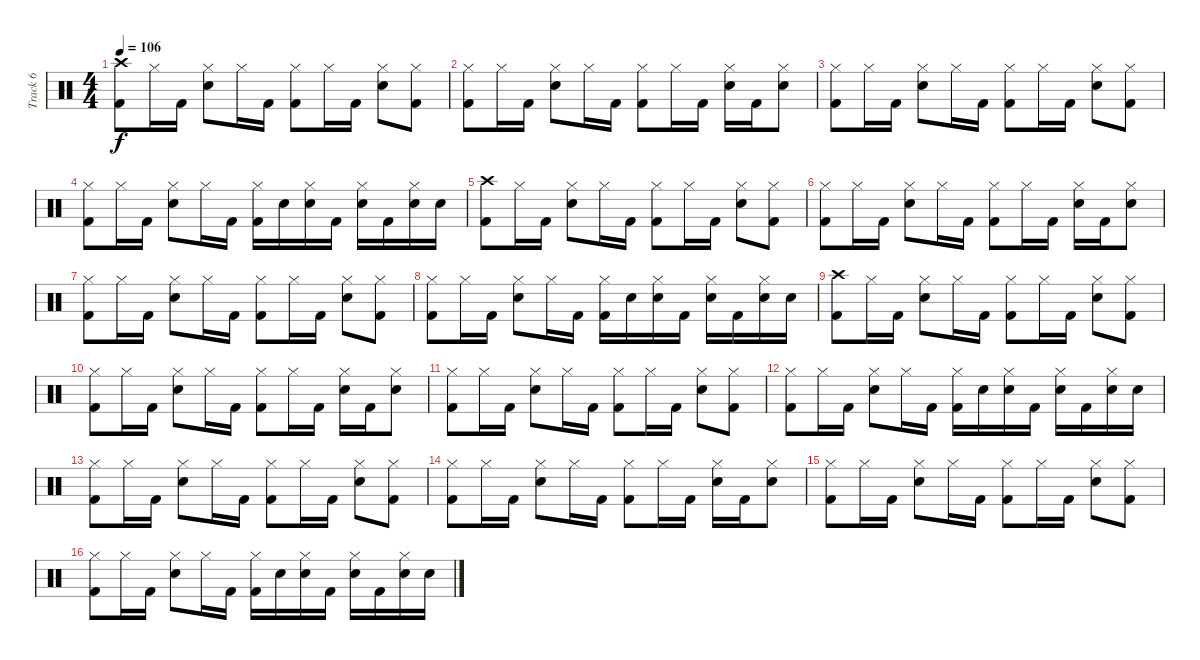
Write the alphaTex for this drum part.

\track ("Track 6" "Track 6") {instrument percussion}
\staff {score}
\articulation defaults
\ts (4 4)
\tempo 106
\clef neutral
\ks c
("Crash high (hit)" "Kick (hit) 2").8{dy f} "Hi-Hat (closed)".16 "Kick (hit) 2".16 ("Hi-Hat (closed)" "Snare (hit) 2").8 "Hi-Hat (closed)".16 "Kick (hit) 2".16 ("Hi-Hat (closed)" "Kick (hit) 2").8 "Hi-Hat (closed)".16 "Kick (hit) 2".16 ("Hi-Hat (closed)" "Snare (hit) 2").8 ("Hi-Hat (closed)" "Kick (hit) 2").8 |
("Hi-Hat (closed)" "Kick (hit) 2").8 "Hi-Hat (closed)".16 "Kick (hit) 2".16 ("Hi-Hat (closed)" "Snare (hit) 2").8 "Hi-Hat (closed)".16 "Kick (hit) 2".16 ("Hi-Hat (closed)" "Kick (hit) 2").8 "Hi-Hat (closed)".16 "Kick (hit) 2".16 ("Hi-Hat (closed)" "Snare (hit) 2").16 "Kick (hit) 2".16 ("Hi-Hat (closed)" "Snare (hit) 2").8 |
("Hi-Hat (closed)" "Kick (hit) 2").8 "Hi-Hat (closed)".16 "Kick (hit) 2".16 ("Hi-Hat (closed)" "Snare (hit) 2").8 "Hi-Hat (closed)".16 "Kick (hit) 2".16 ("Hi-Hat (closed)" "Kick (hit) 2").8 "Hi-Hat (closed)".16 "Kick (hit) 2".16 ("Hi-Hat (closed)" "Snare (hit) 2").8 ("Hi-Hat (closed)" "Kick (hit) 2").8 |
("Hi-Hat (closed)" "Kick (hit) 2").8 "Hi-Hat (closed)".16 "Kick (hit) 2".16 ("Hi-Hat (closed)" "Snare (hit) 2").8 "Hi-Hat (closed)".16 "Kick (hit) 2".16 ("Hi-Hat (closed)" "Kick (hit) 2").16 "Snare (hit) 2".16 ("Hi-Hat (closed)" "Snare (hit) 2").16 "Kick (hit) 2".16 ("Hi-Hat (closed)" "Snare (hit) 2").16 "Kick (hit) 2".16 ("Hi-Hat (closed)" "Snare (hit) 2").16 "Snare (hit) 2".16 |
("Crash high (hit)" "Kick (hit) 2").8 "Hi-Hat (closed)".16 "Kick (hit) 2".16 ("Hi-Hat (closed)" "Snare (hit) 2").8 "Hi-Hat (closed)".16 "Kick (hit) 2".16 ("Hi-Hat (closed)" "Kick (hit) 2").8 "Hi-Hat (closed)".16 "Kick (hit) 2".16 ("Hi-Hat (closed)" "Snare (hit) 2").8 ("Hi-Hat (closed)" "Kick (hit) 2").8 |
("Hi-Hat (closed)" "Kick (hit) 2").8 "Hi-Hat (closed)".16 "Kick (hit) 2".16 ("Hi-Hat (closed)" "Snare (hit) 2").8 "Hi-Hat (closed)".16 "Kick (hit) 2".16 ("Hi-Hat (closed)" "Kick (hit) 2").8 "Hi-Hat (closed)".16 "Kick (hit) 2".16 ("Hi-Hat (closed)" "Snare (hit) 2").16 "Kick (hit) 2".16 ("Hi-Hat (closed)" "Snare (hit) 2").8 |
("Hi-Hat (closed)" "Kick (hit) 2").8 "Hi-Hat (closed)".16 "Kick (hit) 2".16 ("Hi-Hat (closed)" "Snare (hit) 2").8 "Hi-Hat (closed)".16 "Kick (hit) 2".16 ("Hi-Hat (closed)" "Kick (hit) 2").8 "Hi-Hat (closed)".16 "Kick (hit) 2".16 ("Hi-Hat (closed)" "Snare (hit) 2").8 ("Hi-Hat (closed)" "Kick (hit) 2").8 |
("Hi-Hat (closed)" "Kick (hit) 2").8 "Hi-Hat (closed)".16 "Kick (hit) 2".16 ("Hi-Hat (closed)" "Snare (hit) 2").8 "Hi-Hat (closed)".16 "Kick (hit) 2".16 ("Hi-Hat (closed)" "Kick (hit) 2").16 "Snare (hit) 2".16 ("Hi-Hat (closed)" "Snare (hit) 2").16 "Kick (hit) 2".16 ("Hi-Hat (closed)" "Snare (hit) 2").16 "Kick (hit) 2".16 ("Hi-Hat (closed)" "Snare (hit) 2").16 "Snare (hit) 2".16 |
("Crash high (hit)" "Kick (hit) 2").8 "Hi-Hat (closed)".16 "Kick (hit) 2".16 ("Hi-Hat (closed)" "Snare (hit) 2").8 "Hi-Hat (closed)".16 "Kick (hit) 2".16 ("Hi-Hat (closed)" "Kick (hit) 2").8 "Hi-Hat (closed)".16 "Kick (hit) 2".16 ("Hi-Hat (closed)" "Snare (hit) 2").8 ("Hi-Hat (closed)" "Kick (hit) 2").8 |
("Hi-Hat (closed)" "Kick (hit) 2").8 "Hi-Hat (closed)".16 "Kick (hit) 2".16 ("Hi-Hat (closed)" "Snare (hit) 2").8 "Hi-Hat (closed)".16 "Kick (hit) 2".16 ("Hi-Hat (closed)" "Kick (hit) 2").8 "Hi-Hat (closed)".16 "Kick (hit) 2".16 ("Hi-Hat (closed)" "Snare (hit) 2").16 "Kick (hit) 2".16 ("Hi-Hat (closed)" "Snare (hit) 2").8 |
("Hi-Hat (closed)" "Kick (hit) 2").8 "Hi-Hat (closed)".16 "Kick (hit) 2".16 ("Hi-Hat (closed)" "Snare (hit) 2").8 "Hi-Hat (closed)".16 "Kick (hit) 2".16 ("Hi-Hat (closed)" "Kick (hit) 2").8 "Hi-Hat (closed)".16 "Kick (hit) 2".16 ("Hi-Hat (closed)" "Snare (hit) 2").8 ("Hi-Hat (closed)" "Kick (hit) 2").8 |
("Hi-Hat (closed)" "Kick (hit) 2").8 "Hi-Hat (closed)".16 "Kick (hit) 2".16 ("Hi-Hat (closed)" "Snare (hit) 2").8 "Hi-Hat (closed)".16 "Kick (hit) 2".16 ("Hi-Hat (closed)" "Kick (hit) 2").16 "Snare (hit) 2".16 ("Hi-Hat (closed)" "Snare (hit) 2").16 "Kick (hit) 2".16 ("Hi-Hat (closed)" "Snare (hit) 2").16 "Kick (hit) 2".16 ("Hi-Hat (closed)" "Snare (hit) 2").16 "Snare (hit) 2".16 |
("Hi-Hat (closed)" "Kick (hit) 2").8 "Hi-Hat (closed)".16 "Kick (hit) 2".16 ("Hi-Hat (closed)" "Snare (hit) 2").8 "Hi-Hat (closed)".16 "Kick (hit) 2".16 ("Hi-Hat (closed)" "Kick (hit) 2").8 "Hi-Hat (closed)".16 "Kick (hit) 2".16 ("Hi-Hat (closed)" "Snare (hit) 2").8 ("Hi-Hat (closed)" "Kick (hit) 2").8 |
("Hi-Hat (closed)" "Kick (hit) 2").8 "Hi-Hat (closed)".16 "Kick (hit) 2".16 ("Hi-Hat (closed)" "Snare (hit) 2").8 "Hi-Hat (closed)".16 "Kick (hit) 2".16 ("Hi-Hat (closed)" "Kick (hit) 2").8 "Hi-Hat (closed)".16 "Kick (hit) 2".16 ("Hi-Hat (closed)" "Snare (hit) 2").16 "Kick (hit) 2".16 ("Hi-Hat (closed)" "Snare (hit) 2").8 |
("Hi-Hat (closed)" "Kick (hit) 2").8 "Hi-Hat (closed)".16 "Kick (hit) 2".16 ("Hi-Hat (closed)" "Snare (hit) 2").8 "Hi-Hat (closed)".16 "Kick (hit) 2".16 ("Hi-Hat (closed)" "Kick (hit) 2").8 "Hi-Hat (closed)".16 "Kick (hit) 2".16 ("Hi-Hat (closed)" "Snare (hit) 2").8 ("Hi-Hat (closed)" "Kick (hit) 2").8 |
("Hi-Hat (closed)" "Kick (hit) 2").8 "Hi-Hat (closed)".16 "Kick (hit) 2".16 ("Hi-Hat (closed)" "Snare (hit) 2").8 "Hi-Hat (closed)".16 "Kick (hit) 2".16 ("Hi-Hat (closed)" "Kick (hit) 2").16 "Snare (hit) 2".16 ("Hi-Hat (closed)" "Snare (hit) 2").16 "Kick (hit) 2".16 ("Hi-Hat (closed)" "Snare (hit) 2").16 "Kick (hit) 2".16 ("Hi-Hat (closed)" "Snare (hit) 2").16 "Snare (hit) 2".16
